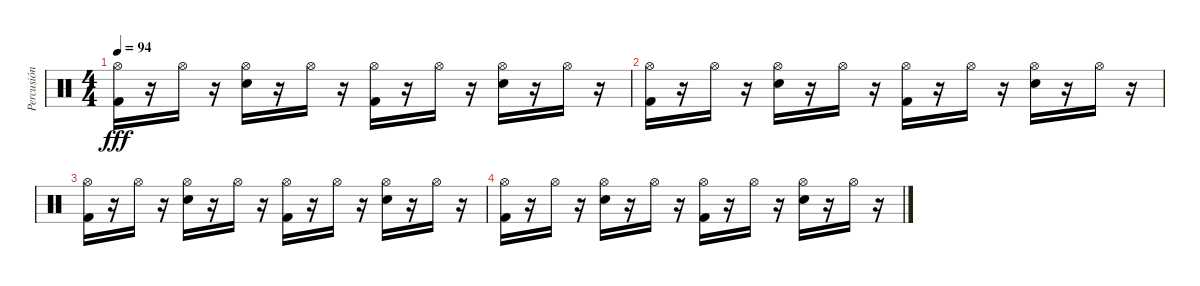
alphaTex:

\track ("Percusión" "Percusión") {instrument percussion}
\staff {score}
\articulation defaults
\ts (4 4)
\tempo 94
\clef neutral
\ks c
("Hi-Hat (open)" "Kick (hit) 2").16{dy fff} r.16 "Hi-Hat (open)".16 r.16 ("Hi-Hat (open)" "Snare (hit) 2").16 r.16 "Hi-Hat (open)".16 r.16 ("Hi-Hat (open)" "Kick (hit) 2").16 r.16 "Hi-Hat (open)".16 r.16 ("Hi-Hat (open)" "Snare (hit) 2").16 r.16 "Hi-Hat (open)".16 r.16 |
("Hi-Hat (open)" "Kick (hit) 2").16 r.16 "Hi-Hat (open)".16 r.16 ("Hi-Hat (open)" "Snare (hit) 2").16 r.16 "Hi-Hat (open)".16 r.16 ("Hi-Hat (open)" "Kick (hit) 2").16 r.16 "Hi-Hat (open)".16 r.16 ("Hi-Hat (open)" "Snare (hit) 2").16 r.16 "Hi-Hat (open)".16 r.16 |
("Hi-Hat (open)" "Kick (hit) 2").16 r.16 "Hi-Hat (open)".16 r.16 ("Hi-Hat (open)" "Snare (hit) 2").16 r.16 "Hi-Hat (open)".16 r.16 ("Hi-Hat (open)" "Kick (hit) 2").16 r.16 "Hi-Hat (open)".16 r.16 ("Hi-Hat (open)" "Snare (hit) 2").16 r.16 "Hi-Hat (open)".16 r.16 |
("Hi-Hat (open)" "Kick (hit) 2").16 r.16 "Hi-Hat (open)".16 r.16 ("Hi-Hat (open)" "Snare (hit) 2").16 r.16 "Hi-Hat (open)".16 r.16 ("Hi-Hat (open)" "Kick (hit) 2").16 r.16 "Hi-Hat (open)".16 r.16 ("Hi-Hat (open)" "Snare (hit) 2").16 r.16 "Hi-Hat (open)".16 r.16
